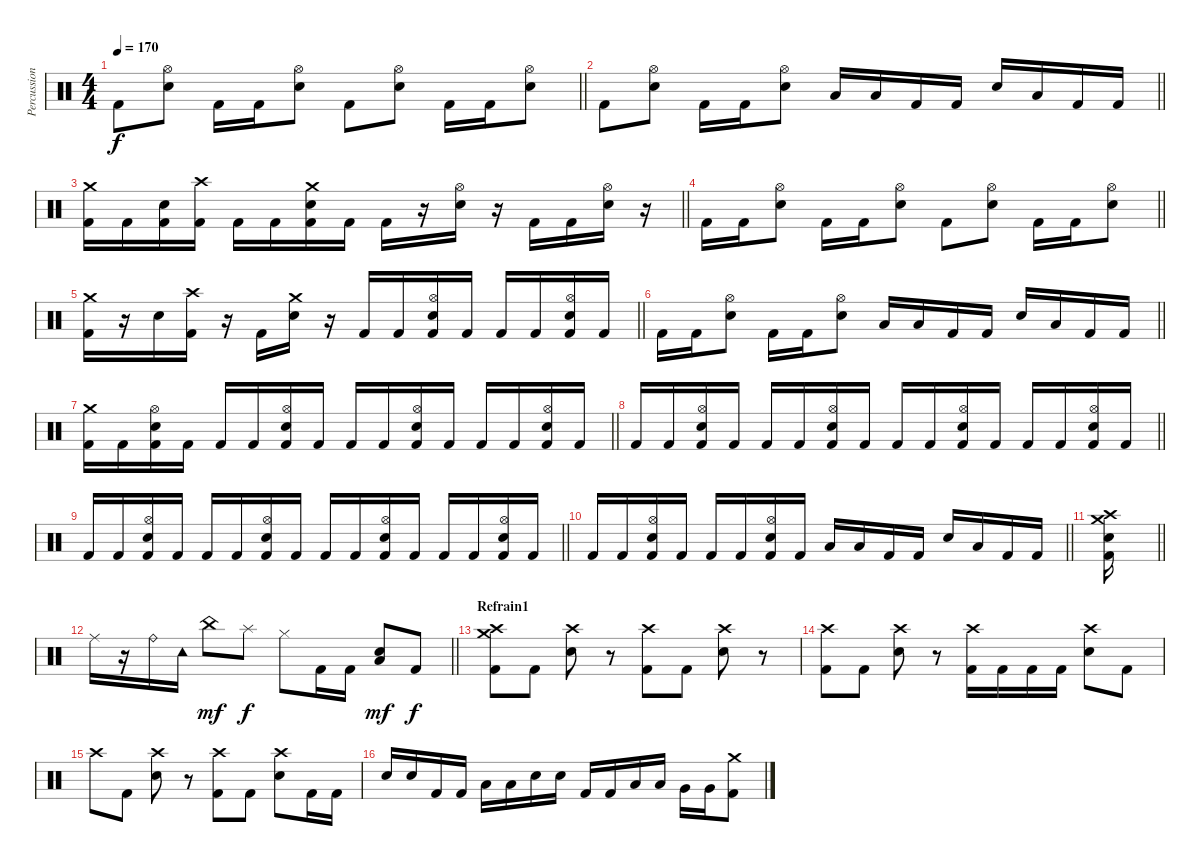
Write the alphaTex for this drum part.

\track ("Percussions" "Percussion") {instrument percussion}
\staff {score}
\articulation defaults
\ts (4 4)
\tempo 170
\clef neutral
\barLineRight lightlight
\ks c "Kick (hit) 2".8{dy f}
("Hi-Hat (open)" "Electric Snare (hit)").8 "Kick (hit) 2".16 "Kick (hit) 2".16 ("Hi-Hat (open)" "Electric Snare (hit)").8 "Kick (hit) 2".8 ("Hi-Hat (open)" "Electric Snare (hit)").8 "Kick (hit) 2".16 "Kick (hit) 2".16 ("Hi-Hat (open)" "Electric Snare (hit)").8 |
\barLineRight lightlight "Kick (hit) 2".8
("Hi-Hat (open)" "Electric Snare (hit)").8 "Kick (hit) 2".16 "Kick (hit) 2".16 ("Hi-Hat (open)" "Electric Snare (hit)").8 "Low Tom (hit)".16 "Low Tom (hit)".16 "Kick (hit) 2".16 "Kick (hit) 2".16 "Electric Snare (hit)".16 "Low Tom (hit)".16 "Kick (hit) 2".16 "Kick (hit) 2".16 |
\barLineRight lightlight
("Crash medium (hit)" "Kick (hit) 2").16 "Kick (hit) 2".16 ("Electric Snare (hit)" "Kick (hit) 2").16 ("Crash high (hit)" "Kick (hit) 2").16 "Kick (hit) 2".16 "Kick (hit) 2".16 ("Crash medium (hit)" "Electric Snare (hit)" "Kick (hit) 2").16 "Kick (hit) 2".16 "Kick (hit) 2".16 r.16 ("Hi-Hat (open)" "Electric Snare (hit)").16 r.16 "Kick (hit) 2".16 "Kick (hit) 2".16 ("Hi-Hat (open)" "Electric Snare (hit)").16 r.16 |
\barLineRight lightlight "Kick (hit) 2".16 "Kick (hit) 2".16
("Hi-Hat (open)" "Electric Snare (hit)").8 "Kick (hit) 2".16 "Kick (hit) 2".16 ("Hi-Hat (open)" "Electric Snare (hit)").8 "Kick (hit) 2".8 ("Hi-Hat (open)" "Electric Snare (hit)").8 "Kick (hit) 2".16 "Kick (hit) 2".16 ("Hi-Hat (open)" "Electric Snare (hit)").8 |
\barLineRight lightlight
("Crash medium (hit)" "Kick (hit) 2").16 r.16 "Electric Snare (hit)".16 ("Crash high (hit)" "Kick (hit) 2").16 r.16 "Kick (hit) 2".16 ("Crash medium (hit)" "Electric Snare (hit)").16 r.16 "Kick (hit) 2".16 "Kick (hit) 2".16 ("Hi-Hat (open)" "Electric Snare (hit)" "Kick (hit) 2").16 "Kick (hit) 2".16 "Kick (hit) 2".16 "Kick (hit) 2".16 ("Hi-Hat (open)" "Electric Snare (hit)" "Kick (hit) 2").16 "Kick (hit) 2".16 |
\barLineRight lightlight "Kick (hit) 2".16 "Kick (hit) 2".16
("Hi-Hat (open)" "Electric Snare (hit)").8 "Kick (hit) 2".16 "Kick (hit) 2".16 ("Hi-Hat (open)" "Electric Snare (hit)").8 "Low Tom (hit)".16 "Low Tom (hit)".16 "Kick (hit) 2".16 "Kick (hit) 2".16 "Electric Snare (hit)".16 "Low Tom (hit)".16 "Kick (hit) 2".16 "Kick (hit) 2".16 |
\barLineRight lightlight
("Crash medium (hit)" "Kick (hit) 2").16 "Kick (hit) 2".16 ("Hi-Hat (open)" "Electric Snare (hit)" "Kick (hit) 2").16 "Kick (hit) 2".16 "Kick (hit) 2".16 "Kick (hit) 2".16 ("Hi-Hat (open)" "Electric Snare (hit)" "Kick (hit) 2").16 "Kick (hit) 2".16 "Kick (hit) 2".16 "Kick (hit) 2".16 ("Hi-Hat (open)" "Electric Snare (hit)" "Kick (hit) 2").16 "Kick (hit) 2".16 "Kick (hit) 2".16 "Kick (hit) 2".16 ("Hi-Hat (open)" "Electric Snare (hit)" "Kick (hit) 2").16 "Kick (hit) 2".16 |
\barLineRight lightlight "Kick (hit) 2".16 "Kick (hit) 2".16
("Hi-Hat (open)" "Electric Snare (hit)" "Kick (hit) 2").16 "Kick (hit) 2".16 "Kick (hit) 2".16 "Kick (hit) 2".16 ("Hi-Hat (open)" "Electric Snare (hit)" "Kick (hit) 2").16 "Kick (hit) 2".16 "Kick (hit) 2".16 "Kick (hit) 2".16 ("Hi-Hat (open)" "Electric Snare (hit)" "Kick (hit) 2").16 "Kick (hit) 2".16 "Kick (hit) 2".16 "Kick (hit) 2".16 ("Hi-Hat (open)" "Electric Snare (hit)" "Kick (hit) 2").16 "Kick (hit) 2".16 |
\barLineRight lightlight "Kick (hit) 2".16 "Kick (hit) 2".16
("Hi-Hat (open)" "Electric Snare (hit)" "Kick (hit) 2").16 "Kick (hit) 2".16 "Kick (hit) 2".16 "Kick (hit) 2".16 ("Hi-Hat (open)" "Electric Snare (hit)" "Kick (hit) 2").16 "Kick (hit) 2".16 "Kick (hit) 2".16 "Kick (hit) 2".16 ("Hi-Hat (open)" "Electric Snare (hit)" "Kick (hit) 2").16 "Kick (hit) 2".16 "Kick (hit) 2".16 "Kick (hit) 2".16 ("Hi-Hat (open)" "Electric Snare (hit)" "Kick (hit) 2").16 "Kick (hit) 2".16 |
\barLineRight lightlight "Kick (hit) 2".16 "Kick (hit) 2".16
("Hi-Hat (open)" "Electric Snare (hit)" "Kick (hit) 2").16 "Kick (hit) 2".16 "Kick (hit) 2".16 "Kick (hit) 2".16 ("Hi-Hat (open)" "Electric Snare (hit)" "Kick (hit) 2").16 "Kick (hit) 2".16 "Low Tom (hit)".16 "Low Tom (hit)".16 "Kick (hit) 2".16 "Kick (hit) 2".16 "Electric Snare (hit)".16 "Low Tom (hit)".16 "Kick (hit) 2".16 "Kick (hit) 2".16 |
\barLineRight lightlight
("Crash medium (hit)" "Crash high (hit)" "Electric Snare (hit)" "Kick (hit) 2").16 |
\barLineRight lightlight "Ride (middle)".16
r.16 "Ride (bell)".16 "Tambourine (hit)".16 "China (hit)".8{dy mf} "Splash (hit)".8{dy f} "Hi-Hat (closed)".8 "Kick (hit) 2".16 "Kick (hit) 2".16 ("Electric Snare (hit)" "Low Floor Tom (hit)").8{dy mf} "Kick (hit) 2".8{dy f} |
\section ("" "Refrain1")
("Crash high (hit)" "Crash medium (hit)" "Kick (hit) 2").8 "Kick (hit) 2".8 ("Crash high (hit)" "Electric Snare (hit)").8 r.8 ("Crash high (hit)" "Kick (hit) 2").8 "Kick (hit) 2".8 ("Crash high (hit)" "Electric Snare (hit)").8 r.8 |
("Crash high (hit)" "Kick (hit) 2").8 "Kick (hit) 2".8 ("Crash high (hit)" "Electric Snare (hit)").8 r.8 ("Crash high (hit)" "Kick (hit) 2").16 "Kick (hit) 2".16 "Kick (hit) 2".16 "Kick (hit) 2".16 ("Crash high (hit)" "Electric Snare (hit)").8 "Kick (hit) 2".8 |
"Crash high (hit)".8 "Kick (hit) 2".8 ("Crash high (hit)" "Electric Snare (hit)").8 r.8 ("Crash high (hit)" "Kick (hit) 2").8 "Kick (hit) 2".8 ("Crash high (hit)" "Electric Snare (hit)").8 "Kick (hit) 2".16 "Kick (hit) 2".16 |
"Electric Snare (hit)".16 "Electric Snare (hit)".16 "Kick (hit) 2".16 "Kick (hit) 2".16 "Low Tom (hit)".16 "Low Tom (hit)".16 "Electric Snare (hit)".16 "Electric Snare (hit)".16 "Kick (hit) 2".16 "Kick (hit) 2".16 "Low Tom (hit)".16 "Low Tom (hit)".16 "Very Low Tom (hit)".16 "Very Low Tom (hit)".16 ("Crash medium (hit)" "Kick (hit) 2").8
